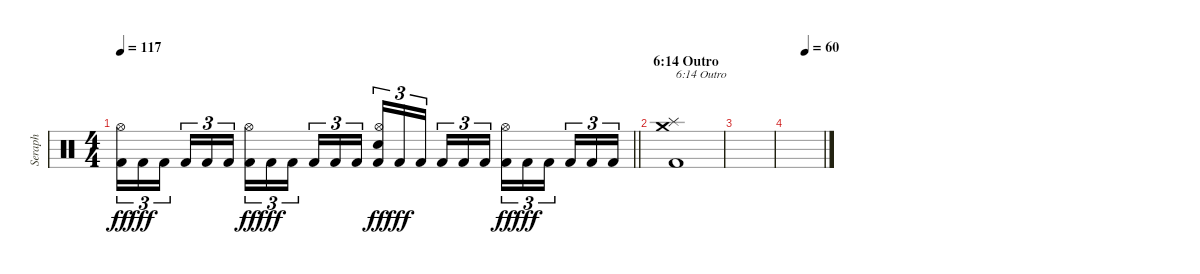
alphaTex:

\track ("Seraph" "Seraph") {instrument percussion}
\staff {score}
\articulation defaults
\ts (4 4)
\tempo 117
\clef neutral
\barLineRight lightlight
\ks c
("Kick (hit) 2" "Hi-Hat (open)").16{tu (3 2) dy ff} "Kick (hit) 2".16{tu (3 2) dy fff} "Kick (hit) 2".16{tu (3 2) beam splitsecondary} "Kick (hit) 2".16{tu (3 2)} "Kick (hit) 2".16{tu (3 2)} "Kick (hit) 2".16{tu (3 2)} ("Kick (hit) 2" "Hi-Hat (open)").16{tu (3 2) dy ff} "Kick (hit) 2".16{tu (3 2) dy fff} "Kick (hit) 2".16{tu (3 2) beam splitsecondary} "Kick (hit) 2".16{tu (3 2)} "Kick (hit) 2".16{tu (3 2)} "Kick (hit) 2".16{tu (3 2)} ("Kick (hit) 2" "Electric Snare (hit)" "Hi-Hat (open)").16{tu (3 2) dy ff} "Kick (hit) 2".16{tu (3 2) dy fff} "Kick (hit) 2".16{tu (3 2) beam splitsecondary} "Kick (hit) 2".16{tu (3 2)} "Kick (hit) 2".16{tu (3 2)} "Kick (hit) 2".16{tu (3 2)} ("Kick (hit) 2" "Hi-Hat (open)").16{tu (3 2) dy ff} "Kick (hit) 2".16{tu (3 2) dy fff} "Kick (hit) 2".16{tu (3 2) beam splitsecondary} "Kick (hit) 2".16{tu (3 2)} "Kick (hit) 2".16{tu (3 2)} "Kick (hit) 2".16{tu (3 2)} |
\section ("" "6:14 Outro")
("Kick (hit) 2" "Crash medium (hit)" "Splash (hit)").1{txt "6:14 Outro"} |
|
\tempo (60 0.5)
